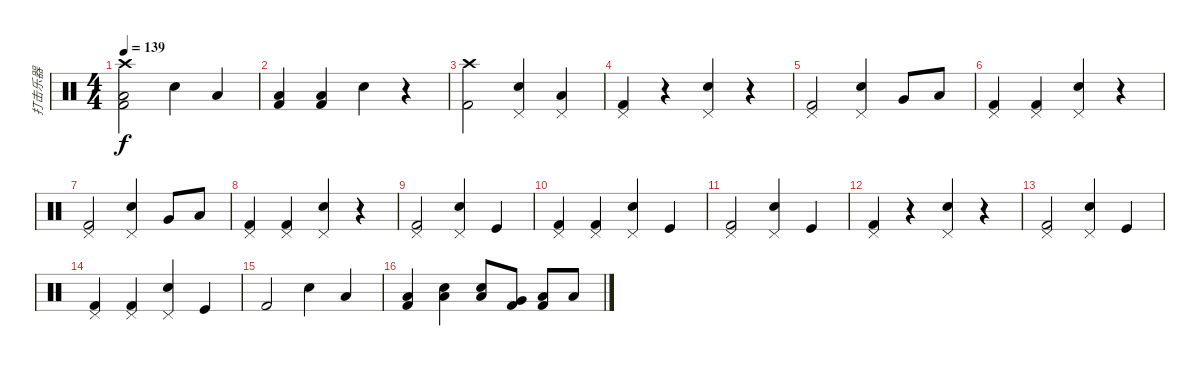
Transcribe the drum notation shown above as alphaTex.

\track ("打击乐器" "打击乐器") {instrument percussion}
\staff {score}
\articulation defaults
\ts (4 4)
\tempo 139
\clef neutral
\ks c
("Crash high (hit)" "Kick (hit) 2" "Low Floor Tom (hit)").2{dy f} "Electric Snare (hit)".4 "Low Floor Tom (hit)".4 |
("Kick (hit) 2" "Low Floor Tom (hit)").4 ("Kick (hit) 2" "Low Floor Tom (hit)").4 "Electric Snare (hit)".4 r.4 |
("Crash high (hit)" "Kick (hit) 2").2 ("Electric Snare (hit)" "Pedal Hi-Hat (hit)").4 ("Low Floor Tom (hit)" "Pedal Hi-Hat (hit)").4 |
("Kick (hit) 2" "Pedal Hi-Hat (hit)").4 r.4 ("Electric Snare (hit)" "Pedal Hi-Hat (hit)").4 r.4 |
("Kick (hit) 2" "Pedal Hi-Hat (hit)").2 ("Electric Snare (hit)" "Pedal Hi-Hat (hit)").4 "Very Low Tom (hit)".8 "Low Floor Tom (hit)".8 |
("Kick (hit) 2" "Pedal Hi-Hat (hit)").4 ("Kick (hit) 2" "Pedal Hi-Hat (hit)").4 ("Electric Snare (hit)" "Pedal Hi-Hat (hit)").4 r.4 |
("Kick (hit) 2" "Pedal Hi-Hat (hit)").2 ("Electric Snare (hit)" "Pedal Hi-Hat (hit)").4 "Very Low Tom (hit)".8 "Low Floor Tom (hit)".8 |
("Kick (hit) 2" "Pedal Hi-Hat (hit)").4 ("Kick (hit) 2" "Pedal Hi-Hat (hit)").4 ("Electric Snare (hit)" "Pedal Hi-Hat (hit)").4 r.4 |
("Kick (hit) 2" "Pedal Hi-Hat (hit)").2 ("Electric Snare (hit)" "Pedal Hi-Hat (hit)").4 "Kick (hit)".4 |
("Kick (hit) 2" "Pedal Hi-Hat (hit)").4 ("Kick (hit) 2" "Pedal Hi-Hat (hit)").4 ("Electric Snare (hit)" "Pedal Hi-Hat (hit)").4 "Kick (hit)".4 |
("Kick (hit) 2" "Pedal Hi-Hat (hit)").2 ("Electric Snare (hit)" "Pedal Hi-Hat (hit)").4 "Kick (hit)".4 |
("Kick (hit) 2" "Pedal Hi-Hat (hit)").4 r.4 ("Electric Snare (hit)" "Pedal Hi-Hat (hit)").4 r.4 |
("Kick (hit) 2" "Pedal Hi-Hat (hit)").2 ("Electric Snare (hit)" "Pedal Hi-Hat (hit)").4 "Kick (hit)".4 |
("Kick (hit) 2" "Pedal Hi-Hat (hit)").4 ("Kick (hit) 2" "Pedal Hi-Hat (hit)").4 ("Electric Snare (hit)" "Pedal Hi-Hat (hit)").4 "Kick (hit)".4 |
"Kick (hit) 2".2 "Electric Snare (hit)".4 "Low Floor Tom (hit)".4 |
("Kick (hit) 2" "Low Floor Tom (hit)").4 ("Electric Snare (hit)" "Low Floor Tom (hit)").4 ("Electric Snare (hit)" "Low Tom (hit)").8 ("Kick (hit) 2" "Very Low Tom (hit)").8 ("Kick (hit) 2" "Low Floor Tom (hit)").8 "Low Floor Tom (hit)".8
